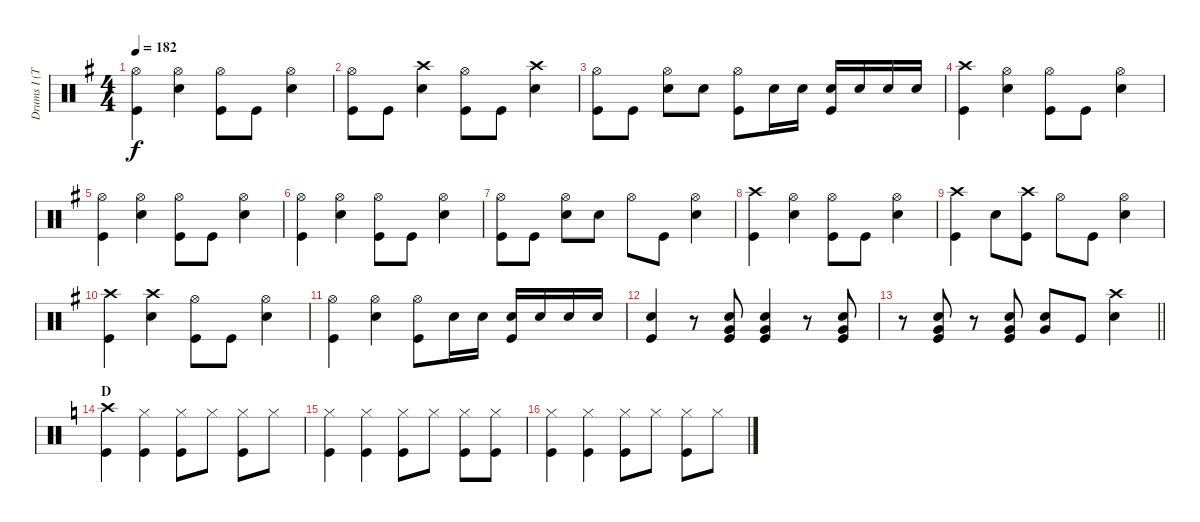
\track ("Drums I (Tainaka Ritsu)" "Drums I (T") {instrument percussion}
\staff {score}
\articulation defaults
\ts (4 4)
\tempo 182
\clef neutral
\ks g
("Hi-Hat (open)" "Kick (hit)").4{dy f} ("Hi-Hat (open)" "Snare (hit) 2").4 ("Hi-Hat (open)" "Kick (hit)").8 "Kick (hit)".8 ("Hi-Hat (open)" "Snare (hit) 2").4 |
("Hi-Hat (open)" "Kick (hit)").8 "Kick (hit)".8 ("Crash high (hit)" "Snare (hit) 2").4 ("Hi-Hat (open)" "Kick (hit)").8 "Kick (hit)".8 ("Crash high (hit)" "Snare (hit) 2").4 |
("Hi-Hat (open)" "Kick (hit)").8 "Kick (hit)".8 ("Hi-Hat (open)" "Snare (hit) 2").8 "Snare (hit) 2".8 ("Hi-Hat (open)" "Kick (hit)").8 "Snare (hit) 2".16 "Snare (hit) 2".16 ("Snare (hit) 2" "Kick (hit)").16 "Snare (hit) 2".16 "Snare (hit) 2".16 "Snare (hit) 2".16 |
("Crash high (hit)" "Kick (hit)").4 ("Hi-Hat (open)" "Snare (hit) 2").4 ("Hi-Hat (open)" "Kick (hit)").8 "Kick (hit)".8 ("Hi-Hat (open)" "Snare (hit) 2").4 |
("Hi-Hat (open)" "Kick (hit)").4 ("Hi-Hat (open)" "Snare (hit) 2").4 ("Hi-Hat (open)" "Kick (hit)").8 "Kick (hit)".8 ("Hi-Hat (open)" "Snare (hit) 2").4 |
("Hi-Hat (open)" "Kick (hit)").4 ("Hi-Hat (open)" "Snare (hit) 2").4 ("Hi-Hat (open)" "Kick (hit)").8 "Kick (hit)".8 ("Hi-Hat (open)" "Snare (hit) 2").4 |
("Hi-Hat (open)" "Kick (hit)").8 "Kick (hit)".8 ("Hi-Hat (open)" "Snare (hit) 2").8 "Snare (hit) 2".8 "Hi-Hat (open)".8 "Kick (hit)".8 ("Hi-Hat (open)" "Snare (hit) 2").4 |
("Crash high (hit)" "Kick (hit)").4 ("Hi-Hat (open)" "Snare (hit) 2").4 ("Hi-Hat (open)" "Kick (hit)").8 "Kick (hit)".8 ("Hi-Hat (open)" "Snare (hit) 2").4 |
("Crash high (hit)" "Kick (hit)").4 "Snare (hit) 2".8 ("Crash high (hit)" "Kick (hit)").8 "Hi-Hat (open)".8 "Kick (hit)".8 ("Hi-Hat (open)" "Snare (hit) 2").4 |
("Crash high (hit)" "Kick (hit)").4 ("Crash high (hit)" "Snare (hit) 2").4 ("Hi-Hat (open)" "Kick (hit)").8 "Kick (hit)".8 ("Hi-Hat (open)" "Snare (hit) 2").4 |
("Hi-Hat (open)" "Kick (hit)").4 ("Hi-Hat (open)" "Snare (hit) 2").4 ("Hi-Hat (open)" "Kick (hit)").8 "Snare (hit) 2".16 "Snare (hit) 2".16 ("Snare (hit) 2" "Kick (hit)").16 "Snare (hit) 2".16 "Snare (hit) 2".16 "Snare (hit) 2".16 |
("Snare (hit) 2" "Kick (hit)").4 r.8 ("Snare (hit) 2" "Very Low Tom (hit)" "Kick (hit)").8 ("Snare (hit) 2" "Very Low Tom (hit)" "Kick (hit)").4 r.8 ("Snare (hit) 2" "Very Low Tom (hit)" "Kick (hit)").8 |
\barLineRight lightlight
r.8 ("Snare (hit) 2" "Very Low Tom (hit)" "Kick (hit)").8 r.8 ("Snare (hit) 2" "Very Low Tom (hit)" "Kick (hit)").8 ("Snare (hit) 2" "Very Low Tom (hit)").8 "Kick (hit)".8 ("Crash high (hit)" "Snare (hit) 2").4 |
\section ("" "D")
\ks c
("Crash high (hit)" "Kick (hit)").4 ("Hi-Hat (closed)" "Kick (hit)").4 ("Hi-Hat (closed)" "Kick (hit)").8 "Hi-Hat (closed)".8 ("Hi-Hat (closed)" "Kick (hit)").8 "Hi-Hat (closed)".8 |
("Hi-Hat (closed)" "Kick (hit)").4 ("Hi-Hat (closed)" "Kick (hit)").4 ("Hi-Hat (closed)" "Kick (hit)").8 "Hi-Hat (closed)".8 ("Hi-Hat (closed)" "Kick (hit)").8 ("Hi-Hat (closed)" "Kick (hit)").8 |
("Hi-Hat (closed)" "Kick (hit)").4 ("Hi-Hat (closed)" "Kick (hit)").4 ("Hi-Hat (closed)" "Kick (hit)").8 "Hi-Hat (closed)".8 ("Hi-Hat (closed)" "Kick (hit)").8 "Hi-Hat (closed)".8
